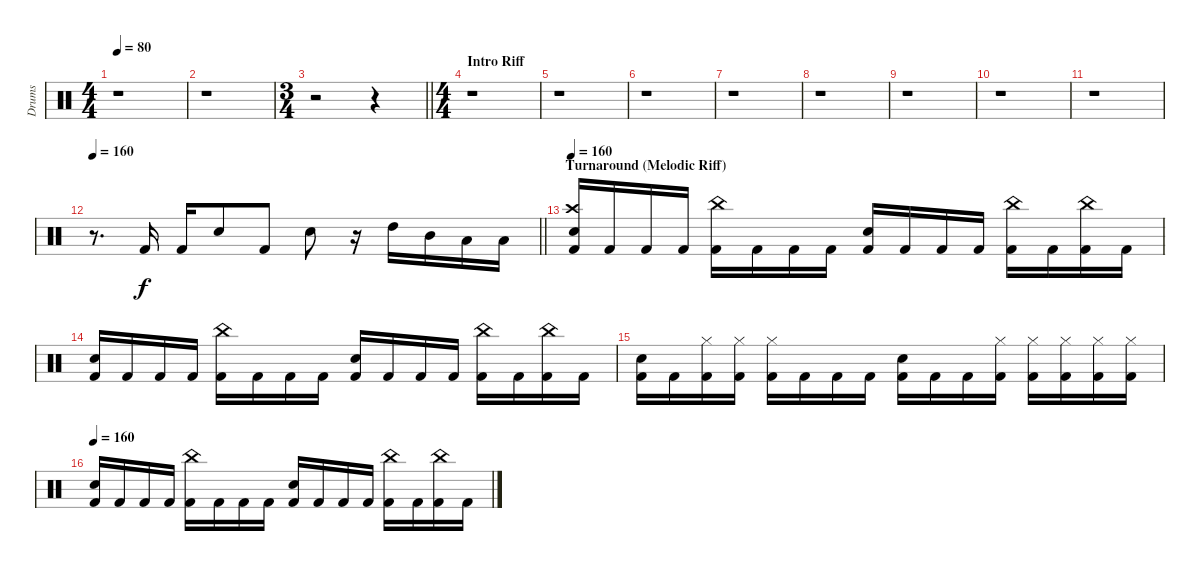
\track ("Drums" "Drums") {instrument percussion}
\staff {score}
\articulation defaults
\ts (4 4)
\tempo 80
\clef neutral
\ks c
r.1{dy f} |
r.1 |
\ts (3 4)
\barLineRight lightlight
r.2 r.4 |
\ts (4 4)
\section ("" "Intro Riff")
r.1 |
r.1 |
r.1 |
r.1 |
r.1 |
r.1 |
r.1 |
r.1 |
\tempo 160
\barLineRight lightlight
r.8{d} "Kick (hit) 2".16 "Kick (hit) 2".16 "Snare (hit) 2".8 "Kick (hit) 2".8 "Snare (hit) 2".8 r.16 "High Tom (hit)".16 "Mid Tom (hit)".16 "Low Tom (hit)".16 "Low Tom (hit)".16 |
\section ("" "Turnaround (Melodic Riff)")
\tempo 160
("Crash high (hit)" "Electric Snare (hit)" "Kick (hit) 2").16 "Kick (hit) 2".16 "Kick (hit) 2".16 "Kick (hit) 2".16 ("China (hit)" "Kick (hit) 2").16 "Kick (hit) 2".16 "Kick (hit) 2".16 "Kick (hit) 2".16 ("Electric Snare (hit)" "Kick (hit) 2").16 "Kick (hit) 2".16 "Kick (hit) 2".16 "Kick (hit) 2".16 ("China (hit)" "Kick (hit) 2").16 "Kick (hit) 2".16 ("China (hit)" "Kick (hit) 2").16 "Kick (hit) 2".16 |
("Electric Snare (hit)" "Kick (hit) 2").16 "Kick (hit) 2".16 "Kick (hit) 2".16 "Kick (hit) 2".16 ("China (hit)" "Kick (hit) 2").16 "Kick (hit) 2".16 "Kick (hit) 2".16 "Kick (hit) 2".16 ("Electric Snare (hit)" "Kick (hit) 2").16 "Kick (hit) 2".16 "Kick (hit) 2".16 "Kick (hit) 2".16 ("China (hit)" "Kick (hit) 2").16 "Kick (hit) 2".16 ("China (hit)" "Kick (hit) 2").16 "Kick (hit) 2".16 |
("Electric Snare (hit)" "Kick (hit) 2").16 "Kick (hit) 2".16 ("Hi-Hat (closed)" "Kick (hit) 2").16 ("Hi-Hat (closed)" "Kick (hit) 2").16 ("Hi-Hat (closed)" "Kick (hit) 2").16 "Kick (hit) 2".16 "Kick (hit) 2".16 "Kick (hit) 2".16 ("Electric Snare (hit)" "Kick (hit) 2").16 "Kick (hit) 2".16 "Kick (hit) 2".16 ("Hi-Hat (closed)" "Kick (hit) 2").16 ("Hi-Hat (closed)" "Kick (hit) 2").16 ("Hi-Hat (closed)" "Kick (hit) 2").16 ("Hi-Hat (closed)" "Kick (hit) 2").16 ("Hi-Hat (closed)" "Kick (hit) 2").16 |
\tempo 160
("Electric Snare (hit)" "Kick (hit) 2").16 "Kick (hit) 2".16 "Kick (hit) 2".16 "Kick (hit) 2".16 ("China (hit)" "Kick (hit) 2").16 "Kick (hit) 2".16 "Kick (hit) 2".16 "Kick (hit) 2".16 ("Electric Snare (hit)" "Kick (hit) 2").16 "Kick (hit) 2".16 "Kick (hit) 2".16 "Kick (hit) 2".16 ("China (hit)" "Kick (hit) 2").16 "Kick (hit) 2".16 ("China (hit)" "Kick (hit) 2").16 "Kick (hit) 2".16
